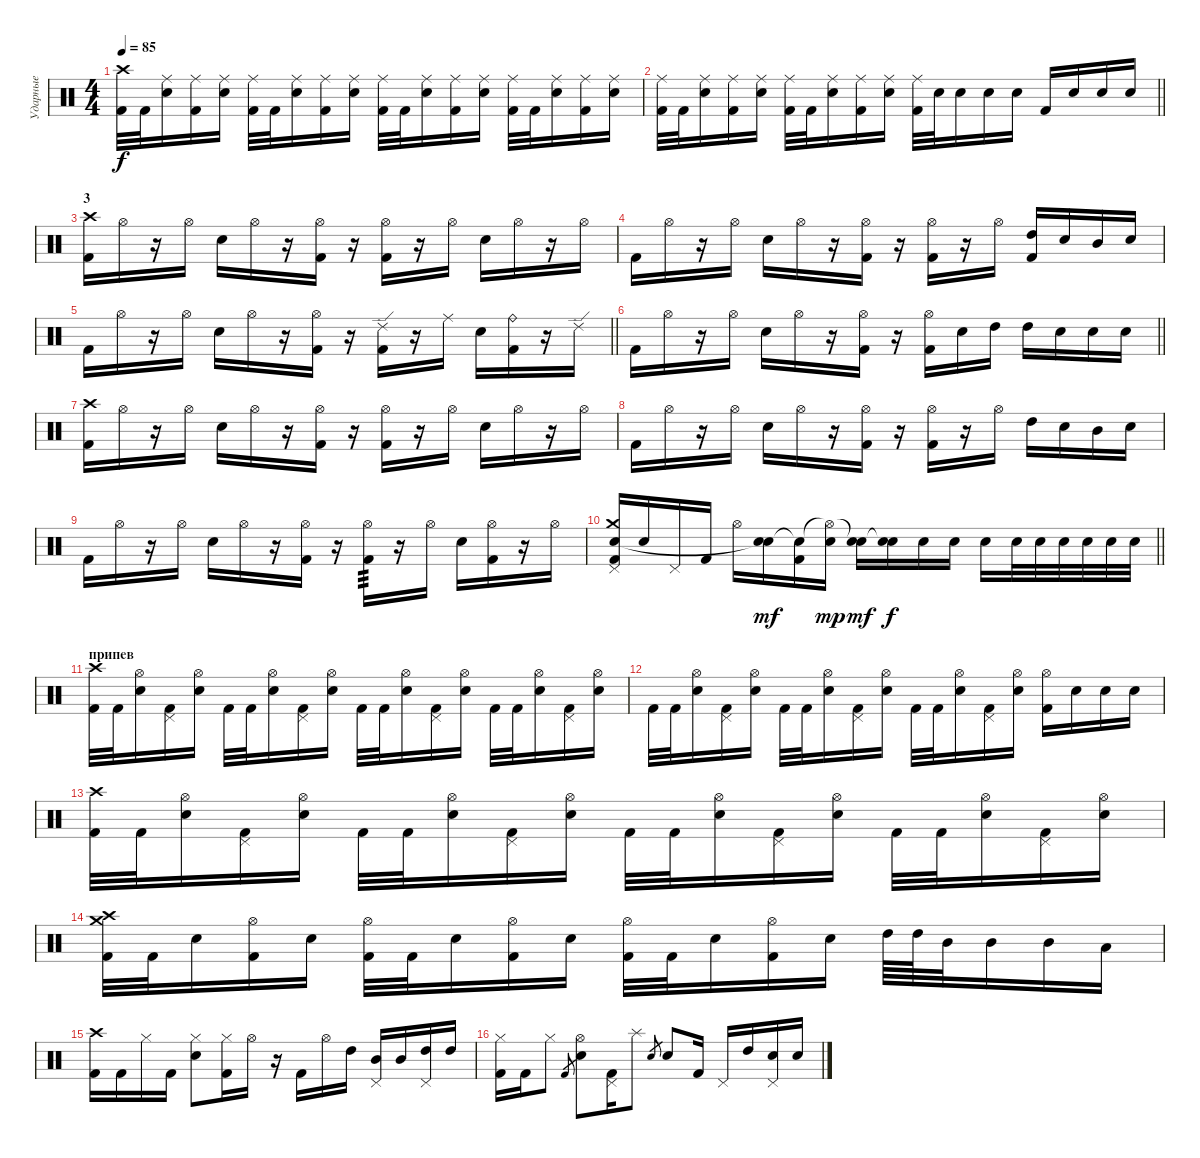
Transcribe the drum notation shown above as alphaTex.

\track ("Ударные" "Ударные") {instrument percussion}
\staff {score}
\articulation defaults
\ts (4 4)
\tempo 85
\clef neutral
\ks c
("Kick (hit) 2" "Crash high (hit)").32{dy f} "Kick (hit) 2".32 ("Electric Snare (hit)" "Ride (middle)").16 ("Kick (hit) 2" "Ride (middle)").16 ("Electric Snare (hit)" "Ride (middle)").16 ("Kick (hit) 2" "Ride (middle)").32 "Kick (hit) 2".32 ("Electric Snare (hit)" "Ride (middle)").16 ("Kick (hit) 2" "Ride (middle)").16 ("Electric Snare (hit)" "Ride (middle)").16 ("Kick (hit) 2" "Ride (middle)").32 "Kick (hit) 2".32 ("Electric Snare (hit)" "Ride (middle)").16 ("Kick (hit) 2" "Ride (middle)").16 ("Electric Snare (hit)" "Ride (middle)").16 ("Kick (hit) 2" "Ride (middle)").32 "Kick (hit) 2".32 ("Electric Snare (hit)" "Ride (middle)").16 ("Kick (hit) 2" "Ride (middle)").16 ("Electric Snare (hit)" "Ride (middle)").16 |
\barLineRight lightlight
("Kick (hit) 2" "Ride (middle)").32 "Kick (hit) 2".32 ("Electric Snare (hit)" "Ride (middle)").16 ("Kick (hit) 2" "Ride (middle)").16 ("Electric Snare (hit)" "Ride (middle)").16 ("Kick (hit) 2" "Ride (middle)").32 "Kick (hit) 2".32 ("Electric Snare (hit)" "Ride (middle)").16 ("Kick (hit) 2" "Ride (middle)").16 ("Electric Snare (hit)" "Ride (middle)").16 ("Kick (hit) 2" "Ride (middle)").32 "Electric Snare (hit)".32 "Electric Snare (hit)".16 "Electric Snare (hit)".16 "Electric Snare (hit)".16 "Kick (hit) 2".16 "Electric Snare (hit)".16 "Electric Snare (hit)".16 "Electric Snare (hit)".16 |
\section ("" "3")
("Kick (hit) 2" "Crash high (hit)").16 "Hi-Hat (open)".16 r.16 "Hi-Hat (open)".16 "Electric Snare (hit)".16 "Hi-Hat (open)".16 r.16 ("Kick (hit) 2" "Hi-Hat (open)").16 r.16 ("Kick (hit) 2" "Hi-Hat (open)").16 r.16 "Hi-Hat (open)".16 "Electric Snare (hit)".16 "Hi-Hat (open)".16 r.16 "Hi-Hat (open)".16 |
"Kick (hit) 2".16 "Hi-Hat (open)".16 r.16 "Hi-Hat (open)".16 "Electric Snare (hit)".16 "Hi-Hat (open)".16 r.16 ("Kick (hit) 2" "Hi-Hat (open)").16 r.16 ("Kick (hit) 2" "Hi-Hat (open)").16 r.16 "Hi-Hat (open)".16 ("High Tom (hit)" "Kick (hit) 2").16 "Electric Snare (hit)".16 "Mid Tom (hit)".16 "Electric Snare (hit)".16 |
\barLineRight lightlight "Kick (hit) 2".16 "Hi-Hat (open)".16
r.16 "Hi-Hat (open)".16 "Electric Snare (hit)".16 "Hi-Hat (open)".16 r.16 ("Kick (hit) 2" "Hi-Hat (open)").16 r.16 ("Kick (hit) 2" "Ride (edge) 2").16 r.16 "Ride (middle)".16 "Electric Snare (hit)".16 ("Kick (hit) 2" "Ride (bell)").16 r.16 "Ride (edge) 2".16 |
\barLineRight lightlight "Kick (hit) 2".16 "Hi-Hat (open)".16
r.16 "Hi-Hat (open)".16 "Electric Snare (hit)".16 "Hi-Hat (open)".16 r.16 ("Kick (hit) 2" "Hi-Hat (open)").16 r.16 ("Kick (hit) 2" "Hi-Hat (open)").16 "Electric Snare (hit)".16 "High Tom (hit)".16 "High Tom (hit)".16 "Electric Snare (hit)".16 "Electric Snare (hit)".16 "Electric Snare (hit)".16 |
("Kick (hit) 2" "Crash high (hit)").16 "Hi-Hat (open)".16 r.16 "Hi-Hat (open)".16 "Electric Snare (hit)".16 "Hi-Hat (open)".16 r.16 ("Kick (hit) 2" "Hi-Hat (open)").16 r.16 ("Kick (hit) 2" "Hi-Hat (open)").16 r.16 "Hi-Hat (open)".16 "Electric Snare (hit)".16 "Hi-Hat (open)".16 r.16 "Hi-Hat (open)".16 |
"Kick (hit) 2".16 "Hi-Hat (open)".16 r.16 "Hi-Hat (open)".16 "Electric Snare (hit)".16 "Hi-Hat (open)".16 r.16 ("Kick (hit) 2" "Hi-Hat (open)").16 r.16 ("Kick (hit) 2" "Hi-Hat (open)").16 r.16 "Hi-Hat (open)".16 "High Tom (hit)".16 "Electric Snare (hit)".16 "Mid Tom (hit)".16 "Electric Snare (hit)".16 |
"Kick (hit) 2".16 "Hi-Hat (open)".16 r.16 "Hi-Hat (open)".16 "Electric Snare (hit)".16 "Hi-Hat (open)".16 r.16 ("Kick (hit) 2" "Hi-Hat (open)").16 r.16 ("Kick (hit) 2" "Hi-Hat (open)").16{tp 3} r.16 "Hi-Hat (open)".16 "Electric Snare (hit)".16 ("Kick (hit) 2" "Hi-Hat (open)").16 r.16 "Hi-Hat (open)".16 |
\barLineRight lightlight
("Kick (hit) 2" "Electric Snare (hit)" "Crash medium (hit)" "Pedal Hi-Hat (hit)").16 "Electric Snare (hit)".16 "Pedal Hi-Hat (hit)".16 "Kick (hit) 2".16 "Hi-Hat (open)".16 ("Electric Snare (hit)" "Snare (hit)"{t}).16{dy mf} ("Kick (hit) 2" "Snare (hit)"{t}).16 ("Electric Snare (hit)" "Hi-Hat (open)"{t}).16{dy mp} ("Electric Snare (hit)" "Snare (hit)"{t}).16{dy mf} ("Electric Snare (hit)" "Snare (hit)"{t}).16{dy f} "Electric Snare (hit)".16 "Electric Snare (hit)".16 "Electric Snare (hit)".16 "Electric Snare (hit)".32 "Electric Snare (hit)".32 "Electric Snare (hit)".32 "Electric Snare (hit)".32 "Electric Snare (hit)".32 "Electric Snare (hit)".32 |
\section ("" "припев")
("Kick (hit) 2" "Crash high (hit)").32 "Kick (hit) 2".32 ("Electric Snare (hit)" "Hi-Hat (open)").16 ("Kick (hit) 2" "Pedal Hi-Hat (hit)").16 ("Electric Snare (hit)" "Hi-Hat (open)").16 "Kick (hit) 2".32 "Kick (hit) 2".32 ("Electric Snare (hit)" "Hi-Hat (open)").16 ("Kick (hit) 2" "Pedal Hi-Hat (hit)").16 ("Electric Snare (hit)" "Hi-Hat (open)").16 "Kick (hit) 2".32 "Kick (hit) 2".32 ("Electric Snare (hit)" "Hi-Hat (open)").16 ("Kick (hit) 2" "Pedal Hi-Hat (hit)").16 ("Electric Snare (hit)" "Hi-Hat (open)").16 "Kick (hit) 2".32 "Kick (hit) 2".32 ("Electric Snare (hit)" "Hi-Hat (open)").16 ("Kick (hit) 2" "Pedal Hi-Hat (hit)").16 ("Electric Snare (hit)" "Hi-Hat (open)").16 |
"Kick (hit) 2".32 "Kick (hit) 2".32 ("Electric Snare (hit)" "Hi-Hat (open)").16 ("Kick (hit) 2" "Pedal Hi-Hat (hit)").16 ("Electric Snare (hit)" "Hi-Hat (open)").16 "Kick (hit) 2".32 "Kick (hit) 2".32 ("Electric Snare (hit)" "Hi-Hat (open)").16 ("Kick (hit) 2" "Pedal Hi-Hat (hit)").16 ("Electric Snare (hit)" "Hi-Hat (open)").16 "Kick (hit) 2".32 "Kick (hit) 2".32 ("Electric Snare (hit)" "Hi-Hat (open)").16 ("Kick (hit) 2" "Pedal Hi-Hat (hit)").16 ("Electric Snare (hit)" "Hi-Hat (open)").16 ("Kick (hit) 2" "Hi-Hat (open)").16 "Electric Snare (hit)".16 "Electric Snare (hit)".16 "Electric Snare (hit)".16 |
("Kick (hit) 2" "Crash high (hit)").32 "Kick (hit) 2".32 ("Electric Snare (hit)" "Hi-Hat (open)").16 ("Kick (hit) 2" "Pedal Hi-Hat (hit)").16 ("Electric Snare (hit)" "Hi-Hat (open)").16 "Kick (hit) 2".32 "Kick (hit) 2".32 ("Electric Snare (hit)" "Hi-Hat (open)").16 ("Kick (hit) 2" "Pedal Hi-Hat (hit)").16 ("Electric Snare (hit)" "Hi-Hat (open)").16 "Kick (hit) 2".32 "Kick (hit) 2".32 ("Electric Snare (hit)" "Hi-Hat (open)").16 ("Kick (hit) 2" "Pedal Hi-Hat (hit)").16 ("Electric Snare (hit)" "Hi-Hat (open)").16 "Kick (hit) 2".32 "Kick (hit) 2".32 ("Electric Snare (hit)" "Hi-Hat (open)").16 ("Kick (hit) 2" "Pedal Hi-Hat (hit)").16 ("Electric Snare (hit)" "Hi-Hat (open)").16 |
("Kick (hit) 2" "Crash high (hit)" "Crash medium (hit)").32 "Kick (hit) 2".32 "Electric Snare (hit)".16 ("Kick (hit) 2" "Hi-Hat (open)").16 "Electric Snare (hit)".16 ("Kick (hit) 2" "Hi-Hat (open)").32 "Kick (hit) 2".32 "Electric Snare (hit)".16 ("Kick (hit) 2" "Hi-Hat (open)").16 "Electric Snare (hit)".16 ("Kick (hit) 2" "Hi-Hat (open)").32 "Kick (hit) 2".32 "Electric Snare (hit)".16 ("Kick (hit) 2" "Hi-Hat (open)").16 "Electric Snare (hit)".16 "High Tom (hit)".64 "High Tom (hit)".64 "Mid Tom (hit)".32 "Mid Tom (hit)".16 "Mid Tom (hit)".16 "Low Floor Tom (hit)".16 |
("Kick (hit) 2" "Crash high (hit)").16 "Kick (hit) 2".16 "Hi-Hat (closed)".16 "Kick (hit) 2".16 ("Electric Snare (hit)" "Hi-Hat (closed)").8 ("Kick (hit) 2" "Hi-Hat (closed)").16 "Hi-Hat (open)".16 r.16 "Kick (hit) 2".16 "Hi-Hat (open)".16 "High Tom (hit)".16 ("Pedal Hi-Hat (hit)" "Mid Tom (hit)").16 "Mid Tom (hit)".16 ("Pedal Hi-Hat (hit)" "High Tom (hit)").16 "High Tom (hit)".16 |
("Kick (hit) 2" "Hi-Hat (closed)").16 "Kick (hit) 2".16 "Hi-Hat (closed)".8 "Kick (hit) 2".8{gr} ("Electric Snare (hit)" "Hi-Hat (open)").8 ("Kick (hit) 2" "Pedal Hi-Hat (hit)").16 "Splash (hit)".8 "Electric Snare (hit)".8{gr} "Electric Snare (hit)".8 "Kick (hit) 2".16 "Pedal Hi-Hat (hit)".16 "High Tom (hit)".16 ("Pedal Hi-Hat (hit)" "Electric Snare (hit)").16 "Electric Snare (hit)".16
